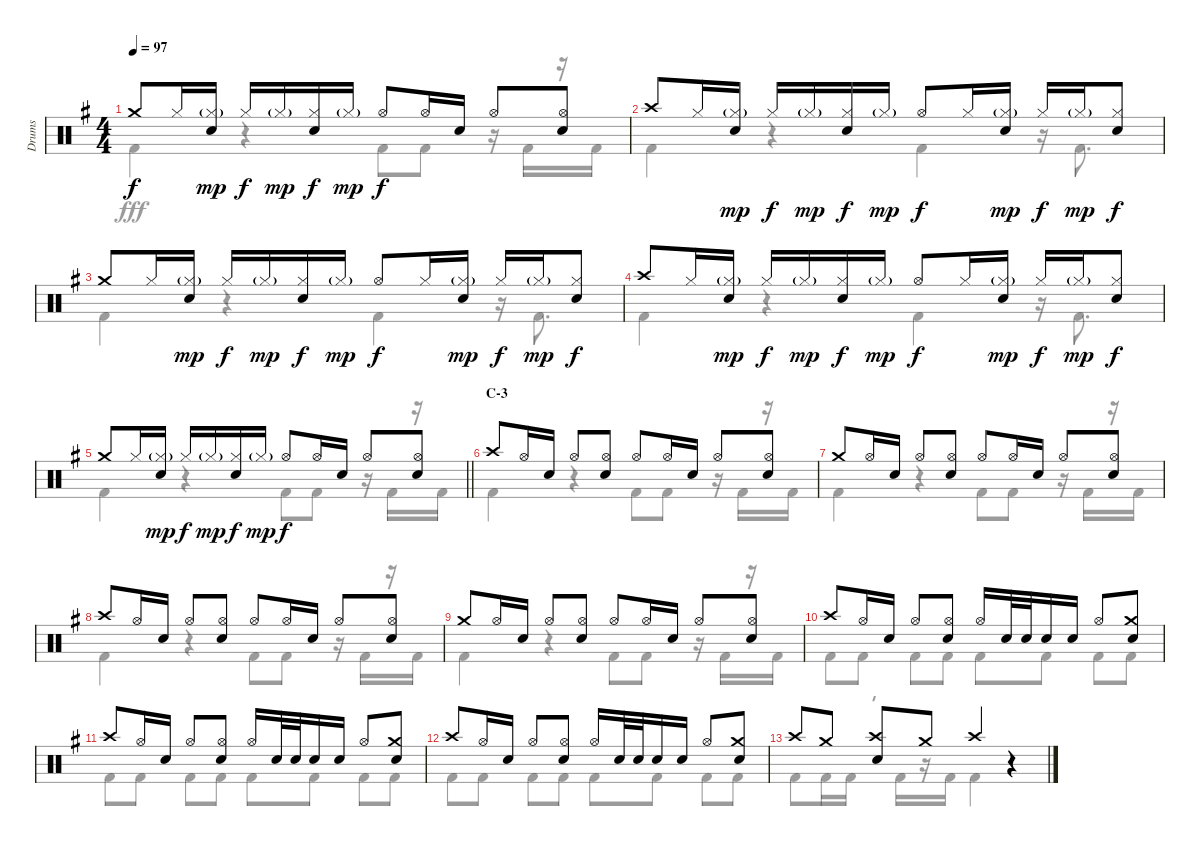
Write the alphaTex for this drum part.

\track ("Drums" "Drums") {instrument percussion}
\staff {score}
\articulation defaults
\voice
\ts (4 4)
\tempo 97
\clef neutral
\ks eminor "Crash medium (hit)".8{dy f} "Hi-Hat (closed)".16
("Hi-Hat (closed)"{g} "Snare (hit) 2").16{dy mp} "Hi-Hat (closed)".16{dy f} "Hi-Hat (closed)"{g}.16{dy mp} ("Hi-Hat (closed)" "Snare (hit) 2").16{dy f} "Hi-Hat (closed)"{g}.16{dy mp} "Hi-Hat (open)".8{dy f} "Hi-Hat (open)".16 "Snare (hit) 2".16 "Hi-Hat (open)".8 ("Hi-Hat (open)" "Snare (hit) 2").8 |
"Crash high (hit)".8 "Hi-Hat (closed)".16 ("Hi-Hat (closed)"{g} "Snare (hit) 2").16{dy mp} "Hi-Hat (closed)".16{dy f} "Hi-Hat (closed)"{g}.16{dy mp} ("Hi-Hat (closed)" "Snare (hit) 2").16{dy f} "Hi-Hat (closed)"{g}.16{dy mp} "Hi-Hat (open)".8{dy f} "Hi-Hat (closed)".16 ("Hi-Hat (closed)"{g} "Snare (hit) 2").16{dy mp} "Hi-Hat (closed)".16{dy f} "Hi-Hat (closed)"{g}.16{dy mp} ("Hi-Hat (closed)" "Snare (hit) 2").8{dy f} |
"Crash medium (hit)".8 "Hi-Hat (closed)".16 ("Hi-Hat (closed)"{g} "Snare (hit) 2").16{dy mp} "Hi-Hat (closed)".16{dy f} "Hi-Hat (closed)"{g}.16{dy mp} ("Hi-Hat (closed)" "Snare (hit) 2").16{dy f} "Hi-Hat (closed)"{g}.16{dy mp} "Hi-Hat (open)".8{dy f} "Hi-Hat (closed)".16 ("Hi-Hat (closed)"{g} "Snare (hit) 2").16{dy mp} "Hi-Hat (closed)".16{dy f} "Hi-Hat (closed)"{g}.16{dy mp} ("Hi-Hat (closed)" "Snare (hit) 2").8{dy f} |
"Crash high (hit)".8 "Hi-Hat (closed)".16 ("Hi-Hat (closed)"{g} "Snare (hit) 2").16{dy mp} "Hi-Hat (closed)".16{dy f} "Hi-Hat (closed)"{g}.16{dy mp} ("Hi-Hat (closed)" "Snare (hit) 2").16{dy f} "Hi-Hat (closed)"{g}.16{dy mp} "Hi-Hat (open)".8{dy f} "Hi-Hat (closed)".16 ("Hi-Hat (closed)"{g} "Snare (hit) 2").16{dy mp} "Hi-Hat (closed)".16{dy f} "Hi-Hat (closed)"{g}.16{dy mp} ("Hi-Hat (closed)" "Snare (hit) 2").8{dy f} |
\barLineRight lightlight "Crash medium (hit)".8 "Hi-Hat (closed)".16
("Hi-Hat (closed)"{g} "Snare (hit) 2").16{dy mp} "Hi-Hat (closed)".16{dy f} "Hi-Hat (closed)"{g}.16{dy mp} ("Hi-Hat (closed)" "Snare (hit) 2").16{dy f} "Hi-Hat (closed)"{g}.16{dy mp} "Hi-Hat (open)".8{dy f} "Hi-Hat (open)".16 "Snare (hit) 2".16 "Hi-Hat (open)".8 ("Hi-Hat (open)" "Snare (hit) 2").8 |
\section ("" "C-3")
"Crash high (hit)".8 "Hi-Hat (open)".16 "Snare (hit) 2".16 "Hi-Hat (open)".8 ("Hi-Hat (open)" "Snare (hit) 2").8 "Hi-Hat (open)".8 "Hi-Hat (open)".16 "Snare (hit) 2".16 "Hi-Hat (open)".8 ("Hi-Hat (open)" "Snare (hit) 2").8 |
"Crash medium (hit)".8 "Hi-Hat (open)".16 "Snare (hit) 2".16 "Hi-Hat (open)".8 ("Hi-Hat (open)" "Snare (hit) 2").8 "Hi-Hat (open)".8 "Hi-Hat (open)".16 "Snare (hit) 2".16 "Hi-Hat (open)".8 ("Hi-Hat (open)" "Snare (hit) 2").8 |
"Crash high (hit)".8 "Hi-Hat (open)".16 "Snare (hit) 2".16 "Hi-Hat (open)".8 ("Hi-Hat (open)" "Snare (hit) 2").8 "Hi-Hat (open)".8 "Hi-Hat (open)".16 "Snare (hit) 2".16 "Hi-Hat (open)".8 ("Hi-Hat (open)" "Snare (hit) 2").8 |
"Crash medium (hit)".8 "Hi-Hat (open)".16 "Snare (hit) 2".16 "Hi-Hat (open)".8 ("Hi-Hat (open)" "Snare (hit) 2").8 "Hi-Hat (open)".8 "Hi-Hat (open)".16 "Snare (hit) 2".16 "Hi-Hat (open)".8 ("Hi-Hat (open)" "Snare (hit) 2").8 |
"Crash high (hit)".8 "Hi-Hat (open)".16 "Snare (hit) 2".16 "Hi-Hat (open)".8 ("Hi-Hat (open)" "Snare (hit) 2").8 "Hi-Hat (open)".16 "Snare (hit) 2".32 "Snare (hit) 2".32 "Snare (hit) 2".16 "Snare (hit) 2".16 "Hi-Hat (open)".8 ("Crash medium (hit)" "Snare (hit) 2").8 |
"Crash high (hit)".8 "Hi-Hat (open)".16 "Snare (hit) 2".16 "Hi-Hat (open)".8 ("Hi-Hat (open)" "Snare (hit) 2").8 "Hi-Hat (open)".16 "Snare (hit) 2".32 "Snare (hit) 2".32 "Snare (hit) 2".16 "Snare (hit) 2".16 "Hi-Hat (open)".8 ("Crash medium (hit)" "Snare (hit) 2").8 |
"Crash high (hit)".8 "Hi-Hat (open)".16 "Snare (hit) 2".16 "Hi-Hat (open)".8 ("Hi-Hat (open)" "Snare (hit) 2").8 "Hi-Hat (open)".16 "Snare (hit) 2".32 "Snare (hit) 2".32 "Snare (hit) 2".16 "Snare (hit) 2".16 "Hi-Hat (open)".8 ("Crash medium (hit)" "Snare (hit) 2").8 |
"Crash high (hit)".8 "Crash medium (hit)".8 ("Crash high (hit)" "Snare (hit) 2").8 "Crash medium (hit)".8 "Crash high (hit)".4 r.4
\voice
\clef neutral
\ottava regular
\simile none
\ks eminor "Kick (hit) 2".4{dy fff}
r.4 "Kick (hit) 2".8 "Kick (hit) 2".8 r.16 "Kick (hit) 2".16 r.16 "Kick (hit) 2".16 |
"Kick (hit) 2".4 r.4 "Kick (hit) 2".4 r.16 "Kick (hit) 2".8{d} |
"Kick (hit) 2".4 r.4 "Kick (hit) 2".4 r.16 "Kick (hit) 2".8{d} |
"Kick (hit) 2".4 r.4 "Kick (hit) 2".4 r.16 "Kick (hit) 2".8{d} |
\barLineRight lightlight "Kick (hit) 2".4
r.4 "Kick (hit) 2".8 "Kick (hit) 2".8 r.16 "Kick (hit) 2".16 r.16 "Kick (hit) 2".16 |
"Kick (hit) 2".4 r.4 "Kick (hit) 2".8 "Kick (hit) 2".8 r.16 "Kick (hit) 2".16 r.16 "Kick (hit) 2".16 |
"Kick (hit) 2".4 r.4 "Kick (hit) 2".8 "Kick (hit) 2".8 r.16 "Kick (hit) 2".16 r.16 "Kick (hit) 2".16 |
"Kick (hit) 2".4 r.4 "Kick (hit) 2".8 "Kick (hit) 2".8 r.16 "Kick (hit) 2".16 r.16 "Kick (hit) 2".16 |
"Kick (hit) 2".4 r.4 "Kick (hit) 2".8 "Kick (hit) 2".8 r.16 "Kick (hit) 2".16 r.16 "Kick (hit) 2".16 |
"Kick (hit) 2".8 "Kick (hit) 2".8 "Kick (hit) 2".8 "Kick (hit) 2".8 "Kick (hit) 2".8 "Kick (hit) 2".8 "Kick (hit) 2".8 "Kick (hit) 2".8 |
"Kick (hit) 2".8 "Kick (hit) 2".8 "Kick (hit) 2".8 "Kick (hit) 2".8 "Kick (hit) 2".8 "Kick (hit) 2".8 "Kick (hit) 2".8 "Kick (hit) 2".8 |
"Kick (hit) 2".8 "Kick (hit) 2".8 "Kick (hit) 2".8 "Kick (hit) 2".8 "Kick (hit) 2".8 "Kick (hit) 2".8 "Kick (hit) 2".8 "Kick (hit) 2".8 |
"Kick (hit) 2".8 "Kick (hit) 2".16 "Kick (hit) 2".16 r.16 "Kick (hit) 2".16 r.16 "Kick (hit) 2".16 "Kick (hit) 2".4 r.4
